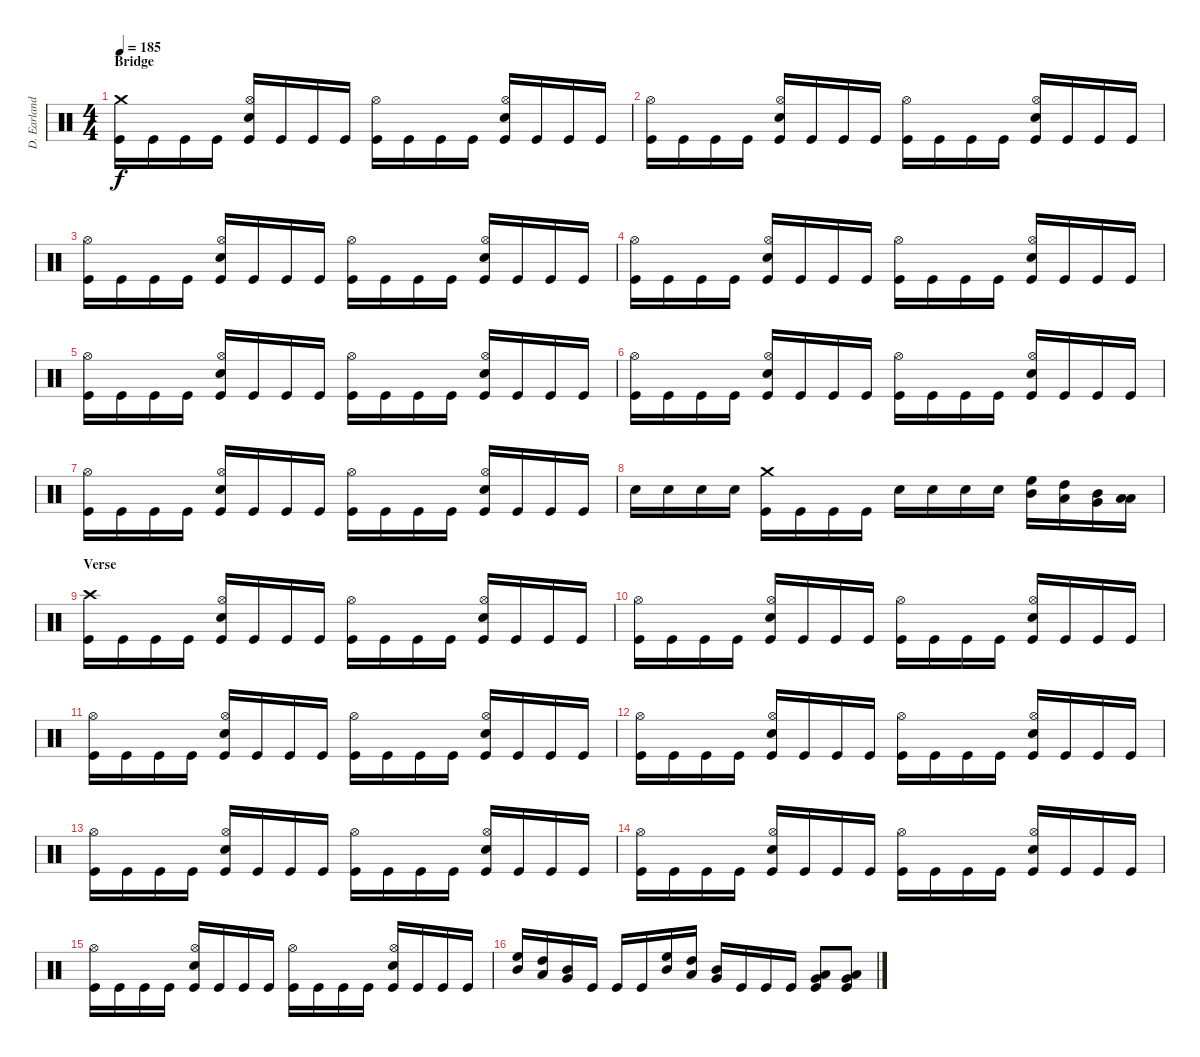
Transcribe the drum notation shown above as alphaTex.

\track ("D. Earlanddson" "D. Earland") {instrument percussion}
\staff {score}
\articulation defaults
\ts (4 4)
\section ("" "Bridge")
\tempo 185
\clef neutral
\ks c
("Crash medium (hit)" "Kick (hit)").16{dy f} "Kick (hit)".16 "Kick (hit)".16 "Kick (hit)".16 ("Hi-Hat (open)" "Electric Snare (hit)" "Kick (hit)").16 "Kick (hit)".16 "Kick (hit)".16 "Kick (hit)".16 ("Hi-Hat (open)" "Kick (hit)").16 "Kick (hit)".16 "Kick (hit)".16 "Kick (hit)".16 ("Hi-Hat (open)" "Electric Snare (hit)" "Kick (hit)").16 "Kick (hit)".16 "Kick (hit)".16 "Kick (hit)".16 |
("Hi-Hat (open)" "Kick (hit)").16 "Kick (hit)".16 "Kick (hit)".16 "Kick (hit)".16 ("Hi-Hat (open)" "Electric Snare (hit)" "Kick (hit)").16 "Kick (hit)".16 "Kick (hit)".16 "Kick (hit)".16 ("Hi-Hat (open)" "Kick (hit)").16 "Kick (hit)".16 "Kick (hit)".16 "Kick (hit)".16 ("Hi-Hat (open)" "Electric Snare (hit)" "Kick (hit)").16 "Kick (hit)".16 "Kick (hit)".16 "Kick (hit)".16 |
("Hi-Hat (open)" "Kick (hit)").16 "Kick (hit)".16 "Kick (hit)".16 "Kick (hit)".16 ("Hi-Hat (open)" "Electric Snare (hit)" "Kick (hit)").16 "Kick (hit)".16 "Kick (hit)".16 "Kick (hit)".16 ("Hi-Hat (open)" "Kick (hit)").16 "Kick (hit)".16 "Kick (hit)".16 "Kick (hit)".16 ("Hi-Hat (open)" "Electric Snare (hit)" "Kick (hit)").16 "Kick (hit)".16 "Kick (hit)".16 "Kick (hit)".16 |
("Hi-Hat (open)" "Kick (hit)").16 "Kick (hit)".16 "Kick (hit)".16 "Kick (hit)".16 ("Hi-Hat (open)" "Electric Snare (hit)" "Kick (hit)").16 "Kick (hit)".16 "Kick (hit)".16 "Kick (hit)".16 ("Hi-Hat (open)" "Kick (hit)").16 "Kick (hit)".16 "Kick (hit)".16 "Kick (hit)".16 ("Hi-Hat (open)" "Electric Snare (hit)" "Kick (hit)").16 "Kick (hit)".16 "Kick (hit)".16 "Kick (hit)".16 |
("Hi-Hat (open)" "Kick (hit)").16 "Kick (hit)".16 "Kick (hit)".16 "Kick (hit)".16 ("Hi-Hat (open)" "Electric Snare (hit)" "Kick (hit)").16 "Kick (hit)".16 "Kick (hit)".16 "Kick (hit)".16 ("Hi-Hat (open)" "Kick (hit)").16 "Kick (hit)".16 "Kick (hit)".16 "Kick (hit)".16 ("Hi-Hat (open)" "Electric Snare (hit)" "Kick (hit)").16 "Kick (hit)".16 "Kick (hit)".16 "Kick (hit)".16 |
("Hi-Hat (open)" "Kick (hit)").16 "Kick (hit)".16 "Kick (hit)".16 "Kick (hit)".16 ("Hi-Hat (open)" "Electric Snare (hit)" "Kick (hit)").16 "Kick (hit)".16 "Kick (hit)".16 "Kick (hit)".16 ("Hi-Hat (open)" "Kick (hit)").16 "Kick (hit)".16 "Kick (hit)".16 "Kick (hit)".16 ("Hi-Hat (open)" "Electric Snare (hit)" "Kick (hit)").16 "Kick (hit)".16 "Kick (hit)".16 "Kick (hit)".16 |
("Hi-Hat (open)" "Kick (hit)").16 "Kick (hit)".16 "Kick (hit)".16 "Kick (hit)".16 ("Hi-Hat (open)" "Electric Snare (hit)" "Kick (hit)").16 "Kick (hit)".16 "Kick (hit)".16 "Kick (hit)".16 ("Hi-Hat (open)" "Kick (hit)").16 "Kick (hit)".16 "Kick (hit)".16 "Kick (hit)".16 ("Hi-Hat (open)" "Electric Snare (hit)" "Kick (hit)").16 "Kick (hit)".16 "Kick (hit)".16 "Kick (hit)".16 |
"Electric Snare (hit)".16 "Electric Snare (hit)".16 "Electric Snare (hit)".16 "Electric Snare (hit)".16 ("Crash medium (hit)" "Kick (hit)").16 "Kick (hit)".16 "Kick (hit)".16 "Kick (hit)".16 "Electric Snare (hit)".16 "Electric Snare (hit)".16 "Electric Snare (hit)".16 "Electric Snare (hit)".16 ("High Floor Tom (hit)" "Mid Tom (hit)").16 ("High Tom (hit)" "Low Tom (hit)").16 ("Mid Tom (hit)" "Very Low Tom (hit)").16 ("Low Tom (hit)" "Low Floor Tom (hit)").16 |
\section ("" "Verse")
("Crash high (hit)" "Kick (hit)").16 "Kick (hit)".16 "Kick (hit)".16 "Kick (hit)".16 ("Hi-Hat (open)" "Electric Snare (hit)" "Kick (hit)").16 "Kick (hit)".16 "Kick (hit)".16 "Kick (hit)".16 ("Hi-Hat (open)" "Kick (hit)").16 "Kick (hit)".16 "Kick (hit)".16 "Kick (hit)".16 ("Hi-Hat (open)" "Electric Snare (hit)" "Kick (hit)").16 "Kick (hit)".16 "Kick (hit)".16 "Kick (hit)".16 |
("Hi-Hat (open)" "Kick (hit)").16 "Kick (hit)".16 "Kick (hit)".16 "Kick (hit)".16 ("Hi-Hat (open)" "Electric Snare (hit)" "Kick (hit)").16 "Kick (hit)".16 "Kick (hit)".16 "Kick (hit)".16 ("Hi-Hat (open)" "Kick (hit)").16 "Kick (hit)".16 "Kick (hit)".16 "Kick (hit)".16 ("Hi-Hat (open)" "Electric Snare (hit)" "Kick (hit)").16 "Kick (hit)".16 "Kick (hit)".16 "Kick (hit)".16 |
("Hi-Hat (open)" "Kick (hit)").16 "Kick (hit)".16 "Kick (hit)".16 "Kick (hit)".16 ("Hi-Hat (open)" "Electric Snare (hit)" "Kick (hit)").16 "Kick (hit)".16 "Kick (hit)".16 "Kick (hit)".16 ("Hi-Hat (open)" "Kick (hit)").16 "Kick (hit)".16 "Kick (hit)".16 "Kick (hit)".16 ("Hi-Hat (open)" "Electric Snare (hit)" "Kick (hit)").16 "Kick (hit)".16 "Kick (hit)".16 "Kick (hit)".16 |
("Hi-Hat (open)" "Kick (hit)").16 "Kick (hit)".16 "Kick (hit)".16 "Kick (hit)".16 ("Hi-Hat (open)" "Electric Snare (hit)" "Kick (hit)").16 "Kick (hit)".16 "Kick (hit)".16 "Kick (hit)".16 ("Hi-Hat (open)" "Kick (hit)").16 "Kick (hit)".16 "Kick (hit)".16 "Kick (hit)".16 ("Hi-Hat (open)" "Electric Snare (hit)" "Kick (hit)").16 "Kick (hit)".16 "Kick (hit)".16 "Kick (hit)".16 |
("Hi-Hat (open)" "Kick (hit)").16 "Kick (hit)".16 "Kick (hit)".16 "Kick (hit)".16 ("Hi-Hat (open)" "Electric Snare (hit)" "Kick (hit)").16 "Kick (hit)".16 "Kick (hit)".16 "Kick (hit)".16 ("Hi-Hat (open)" "Kick (hit)").16 "Kick (hit)".16 "Kick (hit)".16 "Kick (hit)".16 ("Hi-Hat (open)" "Electric Snare (hit)" "Kick (hit)").16 "Kick (hit)".16 "Kick (hit)".16 "Kick (hit)".16 |
("Hi-Hat (open)" "Kick (hit)").16 "Kick (hit)".16 "Kick (hit)".16 "Kick (hit)".16 ("Hi-Hat (open)" "Electric Snare (hit)" "Kick (hit)").16 "Kick (hit)".16 "Kick (hit)".16 "Kick (hit)".16 ("Hi-Hat (open)" "Kick (hit)").16 "Kick (hit)".16 "Kick (hit)".16 "Kick (hit)".16 ("Hi-Hat (open)" "Electric Snare (hit)" "Kick (hit)").16 "Kick (hit)".16 "Kick (hit)".16 "Kick (hit)".16 |
("Hi-Hat (open)" "Kick (hit)").16 "Kick (hit)".16 "Kick (hit)".16 "Kick (hit)".16 ("Hi-Hat (open)" "Electric Snare (hit)" "Kick (hit)").16 "Kick (hit)".16 "Kick (hit)".16 "Kick (hit)".16 ("Hi-Hat (open)" "Kick (hit)").16 "Kick (hit)".16 "Kick (hit)".16 "Kick (hit)".16 ("Hi-Hat (open)" "Electric Snare (hit)" "Kick (hit)").16 "Kick (hit)".16 "Kick (hit)".16 "Kick (hit)".16 |
("High Floor Tom (hit)" "Mid Tom (hit)").16 ("High Tom (hit)" "Low Tom (hit)").16 ("Mid Tom (hit)" "Very Low Tom (hit)").16 "Kick (hit)".16 "Kick (hit)".16 "Kick (hit)".16 ("High Floor Tom (hit)" "Mid Tom (hit)").16 ("High Tom (hit)" "Low Tom (hit)").16 ("Mid Tom (hit)" "Very Low Tom (hit)").16 "Kick (hit)".16 "Kick (hit)".16 "Kick (hit)".16 ("Very Low Tom (hit)" "Low Floor Tom (hit)" "Kick (hit)").8 ("Very Low Tom (hit)" "Low Floor Tom (hit)" "Kick (hit)").8
